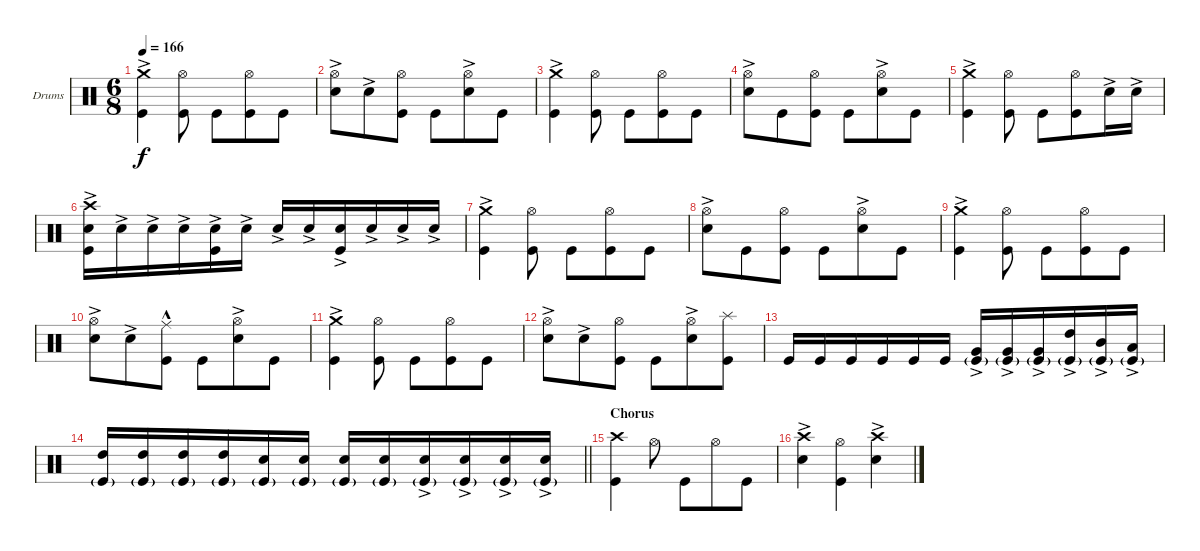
\bracketExtendMode groupsimilarinstruments
\firstSystemTrackNameOrientation horizontal
\otherSystemsTrackNameOrientation horizontal
\track ("Drumkit" "Drums") {instrument percussion}
\staff {score}
\articulation defaults
\ts (6 8)
\tempo 166
\clef neutral
\ks c
("Crash medium (hit)"{ac} "Kick (hit)").4{dy f} ("Kick (hit)" "Hi-Hat (open)").8 "Kick (hit)".8 ("Kick (hit)" "Hi-Hat (open)").8 "Kick (hit)".8 |
("Snare (hit) 2"{ac} "Hi-Hat (open)").8 "Snare (hit) 2"{ac}.8 ("Kick (hit)" "Hi-Hat (open)").8 "Kick (hit)".8 ("Snare (hit) 2"{ac} "Hi-Hat (open)").8 "Kick (hit)".8 |
("Crash medium (hit)"{ac} "Kick (hit)").4 ("Kick (hit)" "Hi-Hat (open)").8 "Kick (hit)".8 ("Kick (hit)" "Hi-Hat (open)").8 "Kick (hit)".8 |
("Snare (hit) 2"{ac} "Hi-Hat (open)").8 "Kick (hit)".8 ("Kick (hit)" "Hi-Hat (open)").8 "Kick (hit)".8 ("Snare (hit) 2"{ac} "Hi-Hat (open)").8 "Kick (hit)".8 |
("Crash medium (hit)"{ac} "Kick (hit)").4 ("Kick (hit)" "Hi-Hat (open)").8 "Kick (hit)".8 ("Kick (hit)" "Hi-Hat (open)").8 "Snare (hit) 2"{ac}.16 "Snare (hit) 2"{ac}.16 |
("Crash high (hit)" "Snare (hit) 2"{ac} "Kick (hit)").16 "Snare (hit) 2"{ac}.16 "Snare (hit) 2"{ac}.16 "Snare (hit) 2"{ac}.16 ("Snare (hit) 2"{ac} "Kick (hit)").16 "Snare (hit) 2"{ac}.16 "Snare (hit) 2"{ac}.16 "Snare (hit) 2"{ac}.16 ("Snare (hit) 2"{ac} "Kick (hit)").16 "Snare (hit) 2"{ac}.16 "Snare (hit) 2"{ac}.16 "Snare (hit) 2"{ac}.16 |
("Crash medium (hit)"{ac} "Kick (hit)").4 ("Kick (hit)" "Hi-Hat (open)").8 "Kick (hit)".8 ("Kick (hit)" "Hi-Hat (open)").8 "Kick (hit)".8 |
("Snare (hit) 2"{ac} "Hi-Hat (open)").8 "Kick (hit)".8 ("Kick (hit)" "Hi-Hat (open)").8 "Kick (hit)".8 ("Snare (hit) 2"{ac} "Hi-Hat (open)").8 "Kick (hit)".8 |
("Crash medium (hit)"{ac} "Kick (hit)").4 ("Kick (hit)" "Hi-Hat (open)").8 "Kick (hit)".8 ("Kick (hit)" "Hi-Hat (open)").8 "Kick (hit)".8 |
("Snare (hit) 2"{ac} "Hi-Hat (open)").8 "Snare (hit) 2"{ac}.8 ("Ride (middle)"{hac} "Kick (hit)").8 "Kick (hit)".8 ("Snare (hit) 2"{ac} "Hi-Hat (open)").8 "Kick (hit)".8 |
("Crash medium (hit)"{ac} "Kick (hit)").4 ("Kick (hit)" "Hi-Hat (open)").8 "Kick (hit)".8 ("Kick (hit)" "Hi-Hat (open)").8 "Kick (hit)".8 |
("Snare (hit) 2"{ac} "Hi-Hat (open)").8 "Snare (hit) 2"{ac}.8 ("Kick (hit)" "Hi-Hat (open)").8 "Kick (hit)".8 ("Snare (hit) 2"{ac} "Hi-Hat (open)").8 ("Kick (hit)" "Splash (hit)").8 |
"Kick (hit)".16 "Kick (hit)".16 "Kick (hit)".16 "Kick (hit)".16 "Kick (hit)".16 "Kick (hit)".16 ("Very Low Tom (hit)"{ac} "Kick (hit)"{g}).16 ("Very Low Tom (hit)"{ac} "Kick (hit)"{g}).16 ("Very Low Tom (hit)"{ac} "Kick (hit)"{g}).16 ("Kick (hit)"{g} "High Tom (hit)"{ac}).16 ("Mid Tom (hit)"{ac} "Kick (hit)"{g}).16 ("Low Tom (hit)"{ac} "Kick (hit)"{g}).16 |
\barLineRight lightlight
("Kick (hit)"{g} "High Tom (hit)").16 ("Kick (hit)"{g} "High Tom (hit)").16 ("Kick (hit)"{g} "High Tom (hit)").16 ("Kick (hit)"{g} "High Tom (hit)").16 ("Snare (hit) 2" "Kick (hit)"{g}).16 ("Snare (hit) 2" "Kick (hit)"{g}).16 ("Snare (hit) 2" "Kick (hit)"{g}).16 ("Snare (hit) 2" "Kick (hit)"{g}).16 ("Snare (hit) 2"{ac} "Kick (hit)"{g}).16 ("Snare (hit) 2"{ac} "Kick (hit)"{g}).16 ("Snare (hit) 2"{ac} "Kick (hit)"{g}).16 ("Snare (hit) 2"{ac} "Kick (hit)"{g}).16 |
\section ("" "Chorus")
("Crash high (hit)" "Kick (hit)").4 "Hi-Hat (open)".8 "Kick (hit)".8 "Hi-Hat (open)".8 "Kick (hit)".8 |
("Crash high (hit)" "Snare (hit) 2"{ac}).4 ("Hi-Hat (open)" "Kick (hit)").4 ("Crash high (hit)" "Snare (hit) 2"{ac}).4
